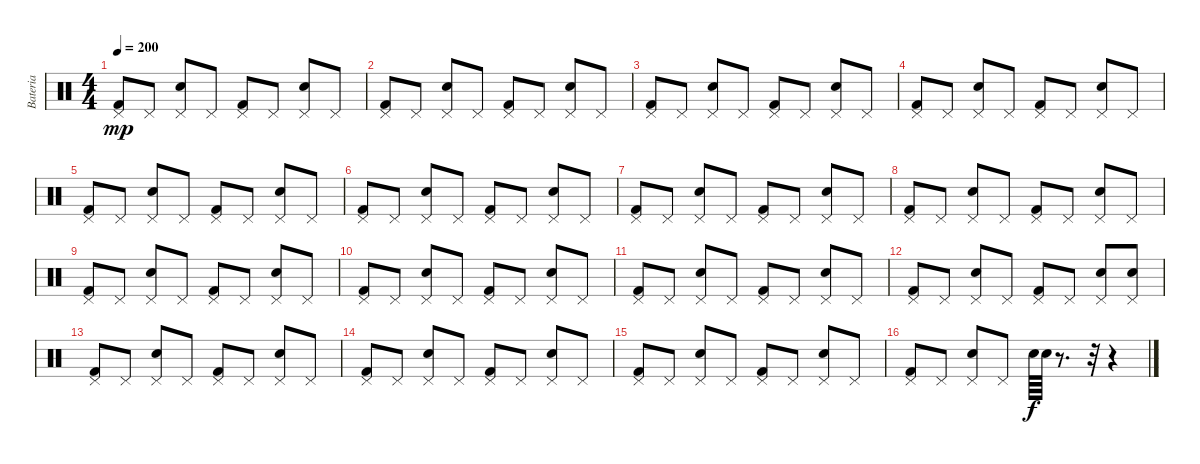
\track ("Bateria" "Bateria") {instrument percussion}
\staff {score}
\articulation defaults
\ts (4 4)
\tempo 200
\clef neutral
\ks c
("Pedal Hi-Hat (hit)" "Kick (hit) 2").8{dy mp} "Pedal Hi-Hat (hit)".8 ("Pedal Hi-Hat (hit)" "Electric Snare (hit)").8 "Pedal Hi-Hat (hit)".8 ("Pedal Hi-Hat (hit)" "Kick (hit) 2").8 "Pedal Hi-Hat (hit)".8 ("Pedal Hi-Hat (hit)" "Electric Snare (hit)").8 "Pedal Hi-Hat (hit)".8 |
("Pedal Hi-Hat (hit)" "Kick (hit) 2").8 "Pedal Hi-Hat (hit)".8 ("Pedal Hi-Hat (hit)" "Electric Snare (hit)").8 "Pedal Hi-Hat (hit)".8 ("Pedal Hi-Hat (hit)" "Kick (hit) 2").8 "Pedal Hi-Hat (hit)".8 ("Pedal Hi-Hat (hit)" "Electric Snare (hit)").8 "Pedal Hi-Hat (hit)".8 |
("Pedal Hi-Hat (hit)" "Kick (hit) 2").8 "Pedal Hi-Hat (hit)".8 ("Pedal Hi-Hat (hit)" "Electric Snare (hit)").8 "Pedal Hi-Hat (hit)".8 ("Pedal Hi-Hat (hit)" "Kick (hit) 2").8 "Pedal Hi-Hat (hit)".8 ("Pedal Hi-Hat (hit)" "Electric Snare (hit)").8 "Pedal Hi-Hat (hit)".8 |
("Pedal Hi-Hat (hit)" "Kick (hit) 2").8 "Pedal Hi-Hat (hit)".8 ("Pedal Hi-Hat (hit)" "Electric Snare (hit)").8 "Pedal Hi-Hat (hit)".8 ("Pedal Hi-Hat (hit)" "Kick (hit) 2").8 "Pedal Hi-Hat (hit)".8 ("Pedal Hi-Hat (hit)" "Electric Snare (hit)").8 "Pedal Hi-Hat (hit)".8 |
("Pedal Hi-Hat (hit)" "Kick (hit) 2").8 "Pedal Hi-Hat (hit)".8 ("Pedal Hi-Hat (hit)" "Electric Snare (hit)").8 "Pedal Hi-Hat (hit)".8 ("Pedal Hi-Hat (hit)" "Kick (hit) 2").8 "Pedal Hi-Hat (hit)".8 ("Pedal Hi-Hat (hit)" "Electric Snare (hit)").8 "Pedal Hi-Hat (hit)".8 |
("Pedal Hi-Hat (hit)" "Kick (hit) 2").8 "Pedal Hi-Hat (hit)".8 ("Pedal Hi-Hat (hit)" "Electric Snare (hit)").8 "Pedal Hi-Hat (hit)".8 ("Pedal Hi-Hat (hit)" "Kick (hit) 2").8 "Pedal Hi-Hat (hit)".8 ("Pedal Hi-Hat (hit)" "Electric Snare (hit)").8 "Pedal Hi-Hat (hit)".8 |
("Pedal Hi-Hat (hit)" "Kick (hit) 2").8 "Pedal Hi-Hat (hit)".8 ("Pedal Hi-Hat (hit)" "Electric Snare (hit)").8 "Pedal Hi-Hat (hit)".8 ("Pedal Hi-Hat (hit)" "Kick (hit) 2").8 "Pedal Hi-Hat (hit)".8 ("Pedal Hi-Hat (hit)" "Electric Snare (hit)").8 "Pedal Hi-Hat (hit)".8 |
("Pedal Hi-Hat (hit)" "Kick (hit) 2").8 "Pedal Hi-Hat (hit)".8 ("Pedal Hi-Hat (hit)" "Electric Snare (hit)").8 "Pedal Hi-Hat (hit)".8 ("Pedal Hi-Hat (hit)" "Kick (hit) 2").8 "Pedal Hi-Hat (hit)".8 ("Pedal Hi-Hat (hit)" "Electric Snare (hit)").8 "Pedal Hi-Hat (hit)".8 |
("Pedal Hi-Hat (hit)" "Kick (hit) 2").8 "Pedal Hi-Hat (hit)".8 ("Pedal Hi-Hat (hit)" "Electric Snare (hit)").8 "Pedal Hi-Hat (hit)".8 ("Pedal Hi-Hat (hit)" "Kick (hit) 2").8 "Pedal Hi-Hat (hit)".8 ("Pedal Hi-Hat (hit)" "Electric Snare (hit)").8 "Pedal Hi-Hat (hit)".8 |
("Pedal Hi-Hat (hit)" "Kick (hit) 2").8 "Pedal Hi-Hat (hit)".8 ("Pedal Hi-Hat (hit)" "Electric Snare (hit)").8 "Pedal Hi-Hat (hit)".8 ("Pedal Hi-Hat (hit)" "Kick (hit) 2").8 "Pedal Hi-Hat (hit)".8 ("Pedal Hi-Hat (hit)" "Electric Snare (hit)").8 "Pedal Hi-Hat (hit)".8 |
("Pedal Hi-Hat (hit)" "Kick (hit) 2").8 "Pedal Hi-Hat (hit)".8 ("Pedal Hi-Hat (hit)" "Electric Snare (hit)").8 "Pedal Hi-Hat (hit)".8 ("Pedal Hi-Hat (hit)" "Kick (hit) 2").8 "Pedal Hi-Hat (hit)".8 ("Pedal Hi-Hat (hit)" "Electric Snare (hit)").8 "Pedal Hi-Hat (hit)".8 |
("Pedal Hi-Hat (hit)" "Kick (hit) 2").8 "Pedal Hi-Hat (hit)".8 ("Pedal Hi-Hat (hit)" "Electric Snare (hit)").8 "Pedal Hi-Hat (hit)".8 ("Pedal Hi-Hat (hit)" "Kick (hit) 2").8 "Pedal Hi-Hat (hit)".8 ("Pedal Hi-Hat (hit)" "Electric Snare (hit)").8 ("Pedal Hi-Hat (hit)" "Electric Snare (hit)").8 |
("Pedal Hi-Hat (hit)" "Kick (hit) 2").8 "Pedal Hi-Hat (hit)".8 ("Pedal Hi-Hat (hit)" "Electric Snare (hit)").8 "Pedal Hi-Hat (hit)".8 ("Pedal Hi-Hat (hit)" "Kick (hit) 2").8 "Pedal Hi-Hat (hit)".8 ("Pedal Hi-Hat (hit)" "Electric Snare (hit)").8 "Pedal Hi-Hat (hit)".8 |
("Pedal Hi-Hat (hit)" "Kick (hit) 2").8 "Pedal Hi-Hat (hit)".8 ("Pedal Hi-Hat (hit)" "Electric Snare (hit)").8 "Pedal Hi-Hat (hit)".8 ("Pedal Hi-Hat (hit)" "Kick (hit) 2").8 "Pedal Hi-Hat (hit)".8 ("Pedal Hi-Hat (hit)" "Electric Snare (hit)").8 "Pedal Hi-Hat (hit)".8 |
("Pedal Hi-Hat (hit)" "Kick (hit) 2").8 "Pedal Hi-Hat (hit)".8 ("Pedal Hi-Hat (hit)" "Electric Snare (hit)").8 "Pedal Hi-Hat (hit)".8 ("Pedal Hi-Hat (hit)" "Kick (hit) 2").8 "Pedal Hi-Hat (hit)".8 ("Pedal Hi-Hat (hit)" "Electric Snare (hit)").8 "Pedal Hi-Hat (hit)".8 |
("Pedal Hi-Hat (hit)" "Kick (hit) 2").8 "Pedal Hi-Hat (hit)".8 ("Pedal Hi-Hat (hit)" "Electric Snare (hit)").8 "Pedal Hi-Hat (hit)".8 "Electric Snare (hit)".64{dy f} "Electric Snare (hit)".64 r.8{d} r.32 r.4
